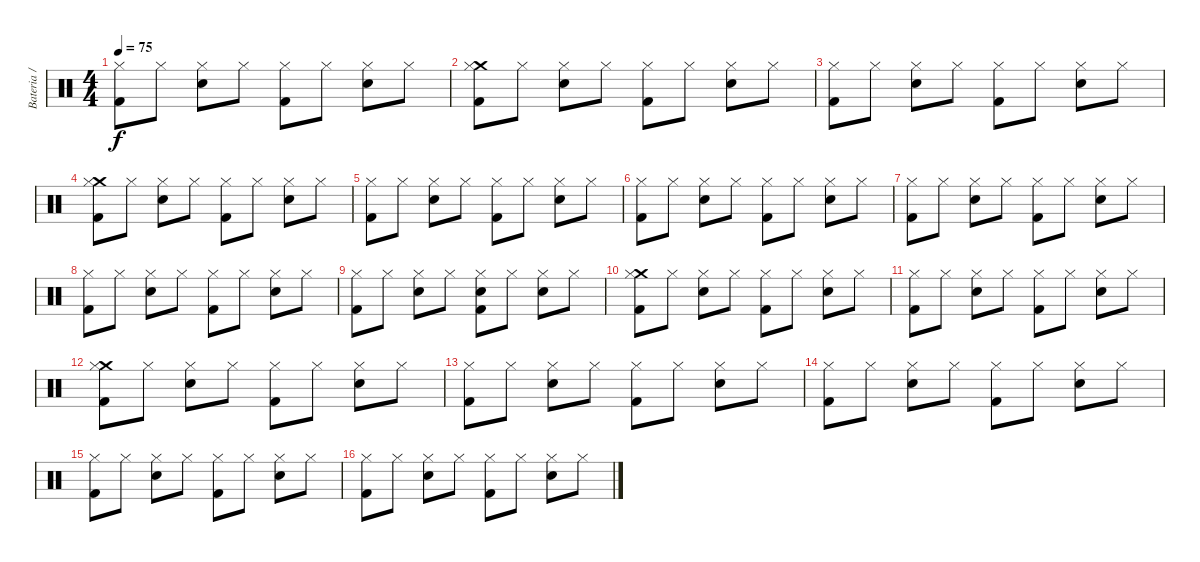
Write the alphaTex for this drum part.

\track ("Bateria / Ringo" "Bateria / ") {instrument percussion}
\staff {score}
\articulation defaults
\ts (4 4)
\tempo 75
\clef neutral
\ks c
("Hi-Hat (closed)" "Kick (hit) 2").8{dy f} "Hi-Hat (closed)".8 ("Snare (hit) 2" "Hi-Hat (closed)").8 "Hi-Hat (closed)".8 ("Hi-Hat (closed)" "Kick (hit) 2").8 "Hi-Hat (closed)".8 ("Snare (hit) 2" "Hi-Hat (closed)").8 "Hi-Hat (closed)".8 |
("Crash medium (hit)" "Hi-Hat (closed)" "Kick (hit) 2").8 "Hi-Hat (closed)".8 ("Snare (hit) 2" "Hi-Hat (closed)").8 "Hi-Hat (closed)".8 ("Hi-Hat (closed)" "Kick (hit) 2").8 "Hi-Hat (closed)".8 ("Snare (hit) 2" "Hi-Hat (closed)").8 "Hi-Hat (closed)".8 |
("Hi-Hat (closed)" "Kick (hit) 2").8 "Hi-Hat (closed)".8 ("Snare (hit) 2" "Hi-Hat (closed)").8 "Hi-Hat (closed)".8 ("Hi-Hat (closed)" "Kick (hit) 2").8 "Hi-Hat (closed)".8 ("Snare (hit) 2" "Hi-Hat (closed)").8 "Hi-Hat (closed)".8 |
("Crash medium (hit)" "Hi-Hat (closed)" "Kick (hit) 2").8 "Hi-Hat (closed)".8 ("Snare (hit) 2" "Hi-Hat (closed)").8 "Hi-Hat (closed)".8 ("Hi-Hat (closed)" "Kick (hit) 2").8 "Hi-Hat (closed)".8 ("Snare (hit) 2" "Hi-Hat (closed)").8 "Hi-Hat (closed)".8 |
("Hi-Hat (closed)" "Kick (hit) 2").8 "Hi-Hat (closed)".8 ("Snare (hit) 2" "Hi-Hat (closed)").8 "Hi-Hat (closed)".8 ("Hi-Hat (closed)" "Kick (hit) 2").8 "Hi-Hat (closed)".8 ("Snare (hit) 2" "Hi-Hat (closed)").8 "Hi-Hat (closed)".8 |
("Hi-Hat (closed)" "Kick (hit) 2").8 "Hi-Hat (closed)".8 ("Snare (hit) 2" "Hi-Hat (closed)").8 "Hi-Hat (closed)".8 ("Hi-Hat (closed)" "Kick (hit) 2").8 "Hi-Hat (closed)".8 ("Snare (hit) 2" "Hi-Hat (closed)").8 "Hi-Hat (closed)".8 |
("Hi-Hat (closed)" "Kick (hit) 2").8 "Hi-Hat (closed)".8 ("Snare (hit) 2" "Hi-Hat (closed)").8 "Hi-Hat (closed)".8 ("Hi-Hat (closed)" "Kick (hit) 2").8 "Hi-Hat (closed)".8 ("Snare (hit) 2" "Hi-Hat (closed)").8 "Hi-Hat (closed)".8 |
("Hi-Hat (closed)" "Kick (hit) 2").8 "Hi-Hat (closed)".8 ("Snare (hit) 2" "Hi-Hat (closed)").8 "Hi-Hat (closed)".8 ("Hi-Hat (closed)" "Kick (hit) 2").8 "Hi-Hat (closed)".8 ("Snare (hit) 2" "Hi-Hat (closed)").8 "Hi-Hat (closed)".8 |
("Hi-Hat (closed)" "Kick (hit) 2").8 "Hi-Hat (closed)".8 ("Snare (hit) 2" "Hi-Hat (closed)").8 "Hi-Hat (closed)".8 ("Snare (hit) 2" "Hi-Hat (closed)" "Kick (hit) 2").8 "Hi-Hat (closed)".8 ("Snare (hit) 2" "Hi-Hat (closed)").8 "Hi-Hat (closed)".8 |
("Crash medium (hit)" "Hi-Hat (closed)" "Kick (hit) 2").8 "Hi-Hat (closed)".8 ("Snare (hit) 2" "Hi-Hat (closed)").8 "Hi-Hat (closed)".8 ("Hi-Hat (closed)" "Kick (hit) 2").8 "Hi-Hat (closed)".8 ("Snare (hit) 2" "Hi-Hat (closed)").8 "Hi-Hat (closed)".8 |
("Hi-Hat (closed)" "Kick (hit) 2").8 "Hi-Hat (closed)".8 ("Snare (hit) 2" "Hi-Hat (closed)").8 "Hi-Hat (closed)".8 ("Hi-Hat (closed)" "Kick (hit) 2").8 "Hi-Hat (closed)".8 ("Snare (hit) 2" "Hi-Hat (closed)").8 "Hi-Hat (closed)".8 |
("Crash medium (hit)" "Hi-Hat (closed)" "Kick (hit) 2").8 "Hi-Hat (closed)".8 ("Snare (hit) 2" "Hi-Hat (closed)").8 "Hi-Hat (closed)".8 ("Hi-Hat (closed)" "Kick (hit) 2").8 "Hi-Hat (closed)".8 ("Snare (hit) 2" "Hi-Hat (closed)").8 "Hi-Hat (closed)".8 |
("Hi-Hat (closed)" "Kick (hit) 2").8 "Hi-Hat (closed)".8 ("Snare (hit) 2" "Hi-Hat (closed)").8 "Hi-Hat (closed)".8 ("Hi-Hat (closed)" "Kick (hit) 2").8 "Hi-Hat (closed)".8 ("Snare (hit) 2" "Hi-Hat (closed)").8 "Hi-Hat (closed)".8 |
("Hi-Hat (closed)" "Kick (hit) 2").8 "Hi-Hat (closed)".8 ("Snare (hit) 2" "Hi-Hat (closed)").8 "Hi-Hat (closed)".8 ("Hi-Hat (closed)" "Kick (hit) 2").8 "Hi-Hat (closed)".8 ("Snare (hit) 2" "Hi-Hat (closed)").8 "Hi-Hat (closed)".8 |
("Hi-Hat (closed)" "Kick (hit) 2").8 "Hi-Hat (closed)".8 ("Snare (hit) 2" "Hi-Hat (closed)").8 "Hi-Hat (closed)".8 ("Hi-Hat (closed)" "Kick (hit) 2").8 "Hi-Hat (closed)".8 ("Snare (hit) 2" "Hi-Hat (closed)").8 "Hi-Hat (closed)".8 |
("Hi-Hat (closed)" "Kick (hit) 2").8 "Hi-Hat (closed)".8 ("Snare (hit) 2" "Hi-Hat (closed)").8 "Hi-Hat (closed)".8 ("Hi-Hat (closed)" "Kick (hit) 2").8 "Hi-Hat (closed)".8 ("Snare (hit) 2" "Hi-Hat (closed)").8 "Hi-Hat (closed)".8
